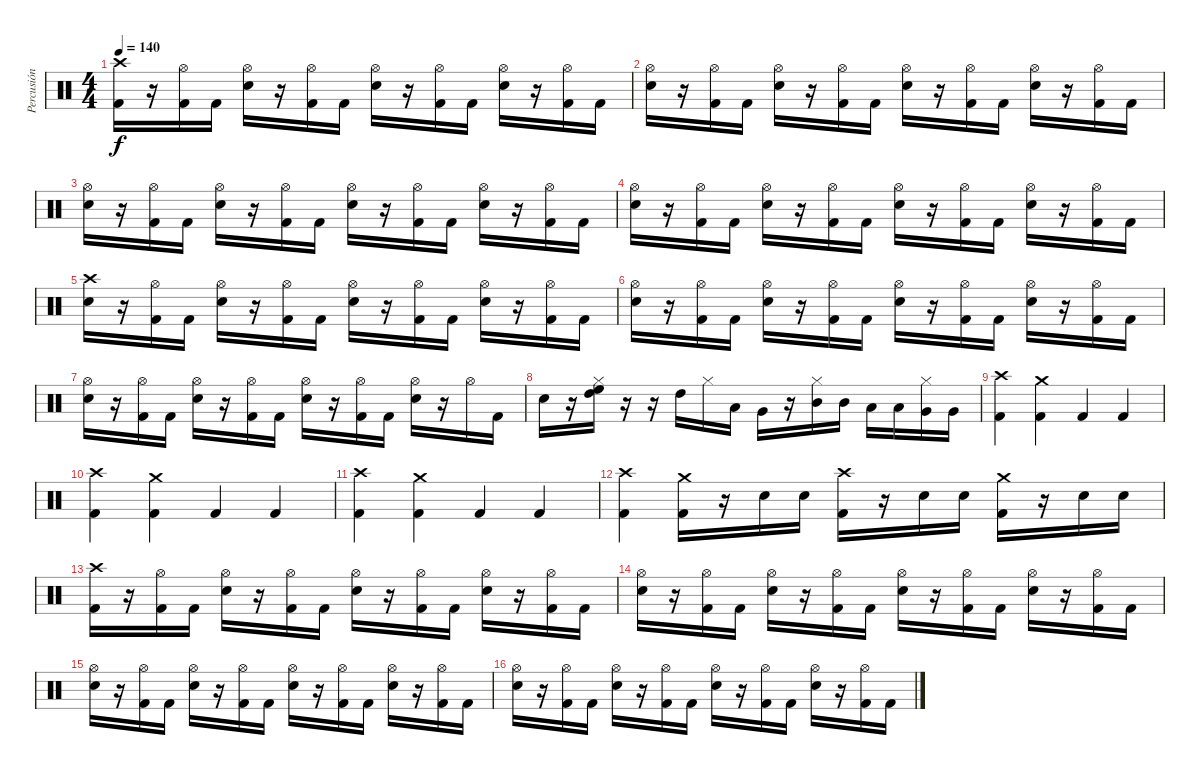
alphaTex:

\track ("Percusión" "Percusión") {instrument percussion}
\staff {score}
\articulation defaults
\ts (4 4)
\tempo 140
\clef neutral
\ks c
("Crash high (hit)" "Kick (hit) 2").16{dy f} r.16 ("Hi-Hat (open)" "Kick (hit) 2").16 "Kick (hit) 2".16 ("Hi-Hat (open)" "Electric Snare (hit)").16 r.16 ("Hi-Hat (open)" "Kick (hit) 2").16 "Kick (hit) 2".16 ("Hi-Hat (open)" "Electric Snare (hit)").16 r.16 ("Hi-Hat (open)" "Kick (hit) 2").16 "Kick (hit) 2".16 ("Hi-Hat (open)" "Electric Snare (hit)").16 r.16 ("Hi-Hat (open)" "Kick (hit) 2").16 "Kick (hit) 2".16 |
("Hi-Hat (open)" "Electric Snare (hit)").16 r.16 ("Hi-Hat (open)" "Kick (hit) 2").16 "Kick (hit) 2".16 ("Hi-Hat (open)" "Electric Snare (hit)").16 r.16 ("Hi-Hat (open)" "Kick (hit) 2").16 "Kick (hit) 2".16 ("Hi-Hat (open)" "Electric Snare (hit)").16 r.16 ("Hi-Hat (open)" "Kick (hit) 2").16 "Kick (hit) 2".16 ("Hi-Hat (open)" "Electric Snare (hit)").16 r.16 ("Hi-Hat (open)" "Kick (hit) 2").16 "Kick (hit) 2".16 |
("Hi-Hat (open)" "Electric Snare (hit)").16 r.16 ("Hi-Hat (open)" "Kick (hit) 2").16 "Kick (hit) 2".16 ("Hi-Hat (open)" "Electric Snare (hit)").16 r.16 ("Hi-Hat (open)" "Kick (hit) 2").16 "Kick (hit) 2".16 ("Hi-Hat (open)" "Electric Snare (hit)").16 r.16 ("Hi-Hat (open)" "Kick (hit) 2").16 "Kick (hit) 2".16 ("Hi-Hat (open)" "Electric Snare (hit)").16 r.16 ("Hi-Hat (open)" "Kick (hit) 2").16 "Kick (hit) 2".16 |
("Hi-Hat (open)" "Electric Snare (hit)").16 r.16 ("Hi-Hat (open)" "Kick (hit) 2").16 "Kick (hit) 2".16 ("Hi-Hat (open)" "Electric Snare (hit)").16 r.16 ("Hi-Hat (open)" "Kick (hit) 2").16 "Kick (hit) 2".16 ("Hi-Hat (open)" "Electric Snare (hit)").16 r.16 ("Hi-Hat (open)" "Kick (hit) 2").16 "Kick (hit) 2".16 ("Hi-Hat (open)" "Electric Snare (hit)").16 r.16 ("Hi-Hat (open)" "Kick (hit) 2").16 "Kick (hit) 2".16 |
("Crash high (hit)" "Electric Snare (hit)").16 r.16 ("Hi-Hat (open)" "Kick (hit) 2").16 "Kick (hit) 2".16 ("Hi-Hat (open)" "Electric Snare (hit)").16 r.16 ("Hi-Hat (open)" "Kick (hit) 2").16 "Kick (hit) 2".16 ("Hi-Hat (open)" "Electric Snare (hit)").16 r.16 ("Hi-Hat (open)" "Kick (hit) 2").16 "Kick (hit) 2".16 ("Hi-Hat (open)" "Electric Snare (hit)").16 r.16 ("Hi-Hat (open)" "Kick (hit) 2").16 "Kick (hit) 2".16 |
("Hi-Hat (open)" "Electric Snare (hit)").16 r.16 ("Hi-Hat (open)" "Kick (hit) 2").16 "Kick (hit) 2".16 ("Hi-Hat (open)" "Electric Snare (hit)").16 r.16 ("Hi-Hat (open)" "Kick (hit) 2").16 "Kick (hit) 2".16 ("Hi-Hat (open)" "Electric Snare (hit)").16 r.16 ("Hi-Hat (open)" "Kick (hit) 2").16 "Kick (hit) 2".16 ("Hi-Hat (open)" "Electric Snare (hit)").16 r.16 ("Hi-Hat (open)" "Kick (hit) 2").16 "Kick (hit) 2".16 |
("Hi-Hat (open)" "Electric Snare (hit)").16 r.16 ("Hi-Hat (open)" "Kick (hit) 2").16 "Kick (hit) 2".16 ("Hi-Hat (open)" "Electric Snare (hit)").16 r.16 ("Hi-Hat (open)" "Kick (hit) 2").16 "Kick (hit) 2".16 ("Hi-Hat (open)" "Electric Snare (hit)").16 r.16 ("Hi-Hat (open)" "Kick (hit) 2").16 "Kick (hit) 2".16 ("Hi-Hat (open)" "Electric Snare (hit)").16 r.16 "Hi-Hat (open)".16 "Kick (hit) 2".16 |
"Electric Snare (hit)".16 r.16 ("High Floor Tom (hit)" "High Tom (hit)" "Hi-Hat (closed)").16 r.16 r.16 "High Tom (hit)".16 "Hi-Hat (closed)".16 "Low Tom (hit)".16 "Very Low Tom (hit)".16 r.16 ("Mid Tom (hit)" "Hi-Hat (closed)").16 "Mid Tom (hit)".16 "Low Tom (hit)".16 "Low Tom (hit)".16 ("Very Low Tom (hit)" "Hi-Hat (closed)").16 "Very Low Tom (hit)".16 |
("Crash high (hit)" "Kick (hit) 2").4 ("Crash medium (hit)" "Kick (hit) 2").4 "Kick (hit) 2".4 "Kick (hit) 2".4 |
("Crash high (hit)" "Kick (hit) 2").4 ("Crash medium (hit)" "Kick (hit) 2").4 "Kick (hit) 2".4 "Kick (hit) 2".4 |
("Crash high (hit)" "Kick (hit) 2").4 ("Crash medium (hit)" "Kick (hit) 2").4 "Kick (hit) 2".4 "Kick (hit) 2".4 |
("Crash high (hit)" "Kick (hit) 2").4 ("Crash medium (hit)" "Kick (hit) 2").16 r.16 "Electric Snare (hit)".16 "Electric Snare (hit)".16 ("Crash high (hit)" "Kick (hit) 2").16 r.16 "Electric Snare (hit)".16 "Electric Snare (hit)".16 ("Crash medium (hit)" "Kick (hit) 2").16 r.16 "Electric Snare (hit)".16 "Electric Snare (hit)".16 |
("Crash high (hit)" "Kick (hit) 2").16 r.16 ("Hi-Hat (open)" "Kick (hit) 2").16 "Kick (hit) 2".16 ("Hi-Hat (open)" "Electric Snare (hit)").16 r.16 ("Hi-Hat (open)" "Kick (hit) 2").16 "Kick (hit) 2".16 ("Hi-Hat (open)" "Electric Snare (hit)").16 r.16 ("Hi-Hat (open)" "Kick (hit) 2").16 "Kick (hit) 2".16 ("Hi-Hat (open)" "Electric Snare (hit)").16 r.16 ("Hi-Hat (open)" "Kick (hit) 2").16 "Kick (hit) 2".16 |
("Hi-Hat (open)" "Electric Snare (hit)").16 r.16 ("Hi-Hat (open)" "Kick (hit) 2").16 "Kick (hit) 2".16 ("Hi-Hat (open)" "Electric Snare (hit)").16 r.16 ("Hi-Hat (open)" "Kick (hit) 2").16 "Kick (hit) 2".16 ("Hi-Hat (open)" "Electric Snare (hit)").16 r.16 ("Hi-Hat (open)" "Kick (hit) 2").16 "Kick (hit) 2".16 ("Hi-Hat (open)" "Electric Snare (hit)").16 r.16 ("Hi-Hat (open)" "Kick (hit) 2").16 "Kick (hit) 2".16 |
("Hi-Hat (open)" "Electric Snare (hit)").16 r.16 ("Hi-Hat (open)" "Kick (hit) 2").16 "Kick (hit) 2".16 ("Hi-Hat (open)" "Electric Snare (hit)").16 r.16 ("Hi-Hat (open)" "Kick (hit) 2").16 "Kick (hit) 2".16 ("Hi-Hat (open)" "Electric Snare (hit)").16 r.16 ("Hi-Hat (open)" "Kick (hit) 2").16 "Kick (hit) 2".16 ("Hi-Hat (open)" "Electric Snare (hit)").16 r.16 ("Hi-Hat (open)" "Kick (hit) 2").16 "Kick (hit) 2".16 |
("Hi-Hat (open)" "Electric Snare (hit)").16 r.16 ("Hi-Hat (open)" "Kick (hit) 2").16 "Kick (hit) 2".16 ("Hi-Hat (open)" "Electric Snare (hit)").16 r.16 ("Hi-Hat (open)" "Kick (hit) 2").16 "Kick (hit) 2".16 ("Hi-Hat (open)" "Electric Snare (hit)").16 r.16 ("Hi-Hat (open)" "Kick (hit) 2").16 "Kick (hit) 2".16 ("Hi-Hat (open)" "Electric Snare (hit)").16 r.16 ("Hi-Hat (open)" "Kick (hit) 2").16 "Kick (hit) 2".16
